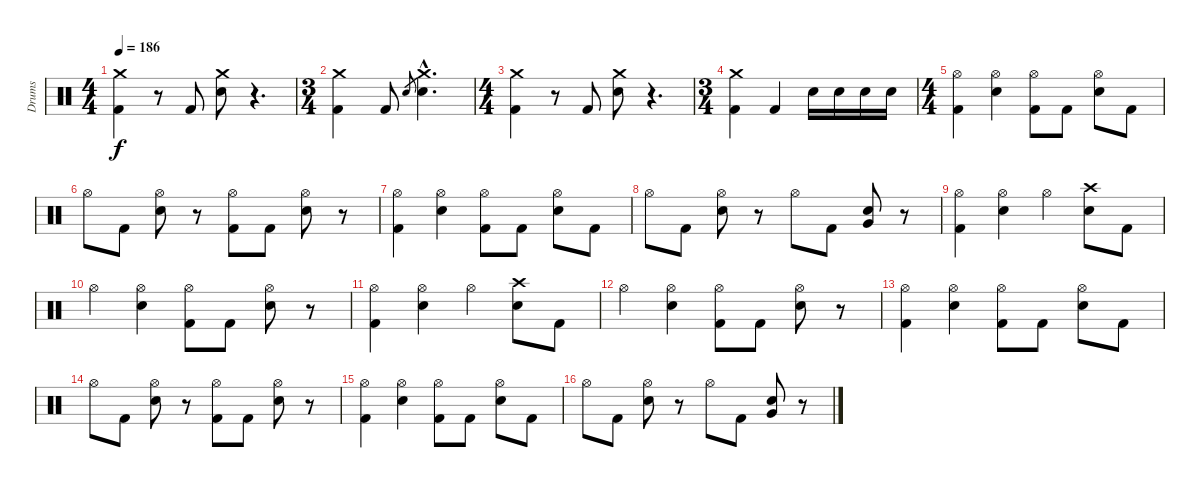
\track ("Drums" "Drums") {instrument percussion}
\staff {score}
\articulation defaults
\ts (4 4)
\tempo 186
\clef neutral
\ks c
("Crash medium (hit)" "Kick (hit) 2").4{dy f} r.8 "Kick (hit) 2".8 ("Crash medium (hit)" "Snare (hit) 2").8 r.4{d} |
\ts (3 4)
("Crash medium (hit)" "Kick (hit) 2").4 "Kick (hit) 2".8 "Snare (hit) 2".8{gr} ("Crash medium (hit)"{hac} "Snare (hit) 2"{hac}).4{d} |
\ts (4 4)
("Crash medium (hit)" "Kick (hit) 2").4 r.8 "Kick (hit) 2".8 ("Crash medium (hit)" "Snare (hit) 2").8 r.4{d} |
\ts (3 4)
("Crash medium (hit)" "Kick (hit) 2").4 "Kick (hit) 2".4 "Snare (hit) 2".16 "Snare (hit) 2".16 "Snare (hit) 2".16 "Snare (hit) 2".16 |
\ts (4 4)
("Hi-Hat (open)" "Kick (hit) 2").4 ("Hi-Hat (open)" "Snare (hit) 2").4 ("Hi-Hat (open)" "Kick (hit) 2").8 "Kick (hit) 2".8 ("Hi-Hat (open)" "Snare (hit) 2").8 "Kick (hit) 2".8 |
"Hi-Hat (open)".8 "Kick (hit) 2".8 ("Hi-Hat (open)" "Snare (hit) 2").8 r.8 ("Hi-Hat (open)" "Kick (hit) 2").8 "Kick (hit) 2".8 ("Hi-Hat (open)" "Snare (hit) 2").8 r.8 |
("Hi-Hat (open)" "Kick (hit) 2").4 ("Hi-Hat (open)" "Snare (hit) 2").4 ("Hi-Hat (open)" "Kick (hit) 2").8 "Kick (hit) 2".8 ("Hi-Hat (open)" "Snare (hit) 2").8 "Kick (hit) 2".8 |
"Hi-Hat (open)".8 "Kick (hit) 2".8 ("Hi-Hat (open)" "Snare (hit) 2").8 r.8 "Hi-Hat (open)".8 "Kick (hit) 2".8 ("Very Low Tom (hit)" "Snare (hit) 2").8 r.8 |
("Hi-Hat (open)" "Kick (hit) 2").4 ("Hi-Hat (open)" "Snare (hit) 2").4 "Hi-Hat (open)".4 ("Crash high (hit)" "Snare (hit) 2").8 "Kick (hit) 2".8 |
"Hi-Hat (open)".4 ("Hi-Hat (open)" "Snare (hit) 2").4 ("Hi-Hat (open)" "Kick (hit) 2").8 "Kick (hit) 2".8 ("Hi-Hat (open)" "Snare (hit) 2").8 r.8 |
("Hi-Hat (open)" "Kick (hit) 2").4 ("Hi-Hat (open)" "Snare (hit) 2").4 "Hi-Hat (open)".4 ("Crash high (hit)" "Snare (hit) 2").8 "Kick (hit) 2".8 |
"Hi-Hat (open)".4 ("Hi-Hat (open)" "Snare (hit) 2").4 ("Hi-Hat (open)" "Kick (hit) 2").8 "Kick (hit) 2".8 ("Hi-Hat (open)" "Snare (hit) 2").8 r.8 |
("Hi-Hat (open)" "Kick (hit) 2").4 ("Hi-Hat (open)" "Snare (hit) 2").4 ("Hi-Hat (open)" "Kick (hit) 2").8 "Kick (hit) 2".8 ("Hi-Hat (open)" "Snare (hit) 2").8 "Kick (hit) 2".8 |
"Hi-Hat (open)".8 "Kick (hit) 2".8 ("Hi-Hat (open)" "Snare (hit) 2").8 r.8 ("Hi-Hat (open)" "Kick (hit) 2").8 "Kick (hit) 2".8 ("Hi-Hat (open)" "Snare (hit) 2").8 r.8 |
("Hi-Hat (open)" "Kick (hit) 2").4 ("Hi-Hat (open)" "Snare (hit) 2").4 ("Hi-Hat (open)" "Kick (hit) 2").8 "Kick (hit) 2".8 ("Hi-Hat (open)" "Snare (hit) 2").8 "Kick (hit) 2".8 |
"Hi-Hat (open)".8 "Kick (hit) 2".8 ("Hi-Hat (open)" "Snare (hit) 2").8 r.8 "Hi-Hat (open)".8 "Kick (hit) 2".8 ("Very Low Tom (hit)" "Snare (hit) 2").8 r.8
